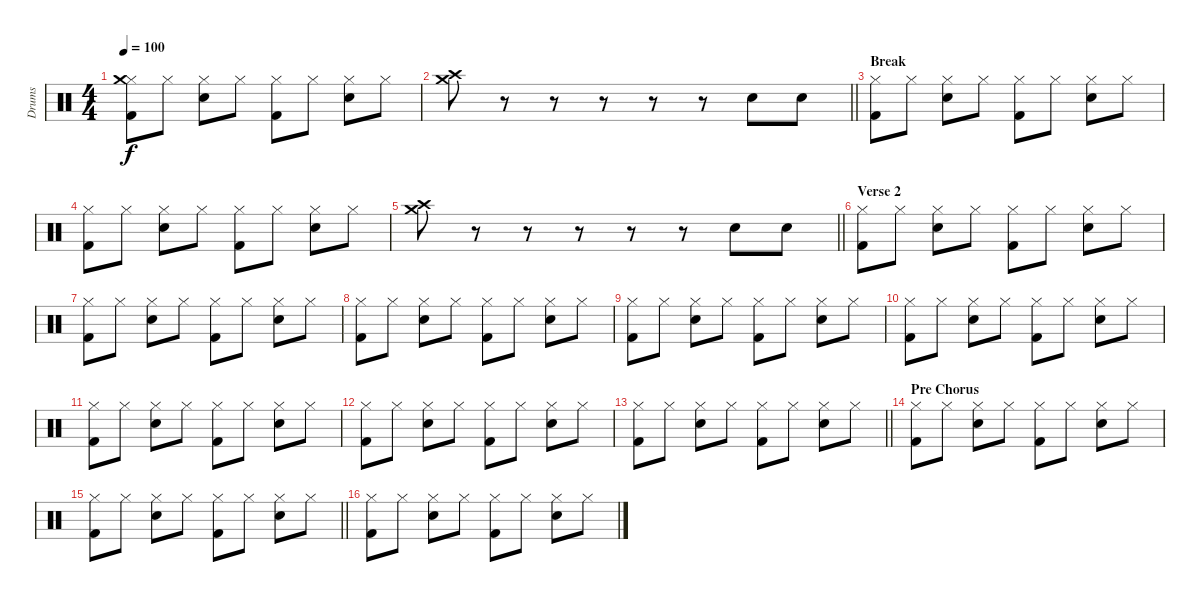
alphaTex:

\track ("Drums" "Drums") {instrument percussion}
\staff {score}
\articulation defaults
\ts (4 4)
\tempo 100
\clef neutral
\ks c
("Hi-Hat (closed)" "Kick (hit) 2" "Crash medium (hit)").8{dy f} "Hi-Hat (closed)".8 ("Hi-Hat (closed)" "Snare (hit) 2").8 "Hi-Hat (closed)".8 ("Hi-Hat (closed)" "Kick (hit) 2").8 "Hi-Hat (closed)".8 ("Hi-Hat (closed)" "Snare (hit) 2").8 "Hi-Hat (closed)".8 |
\barLineRight lightlight
("Crash high (hit)" "Crash medium (hit)").8 r.8 r.8 r.8 r.8 r.8 "Snare (hit) 2".8 "Snare (hit) 2".8 |
\section ("" "Break")
("Hi-Hat (closed)" "Kick (hit) 2").8 "Hi-Hat (closed)".8 ("Hi-Hat (closed)" "Snare (hit) 2").8 "Hi-Hat (closed)".8 ("Hi-Hat (closed)" "Kick (hit) 2").8 "Hi-Hat (closed)".8 ("Hi-Hat (closed)" "Snare (hit) 2").8 "Hi-Hat (closed)".8 |
("Hi-Hat (closed)" "Kick (hit) 2").8 "Hi-Hat (closed)".8 ("Hi-Hat (closed)" "Snare (hit) 2").8 "Hi-Hat (closed)".8 ("Hi-Hat (closed)" "Kick (hit) 2").8 "Hi-Hat (closed)".8 ("Hi-Hat (closed)" "Snare (hit) 2").8 "Hi-Hat (closed)".8 |
\barLineRight lightlight
("Crash high (hit)" "Crash medium (hit)").8 r.8 r.8 r.8 r.8 r.8 "Snare (hit) 2".8 "Snare (hit) 2".8 |
\section ("" "Verse 2")
("Hi-Hat (closed)" "Kick (hit) 2").8 "Hi-Hat (closed)".8 ("Hi-Hat (closed)" "Snare (hit) 2").8 "Hi-Hat (closed)".8 ("Hi-Hat (closed)" "Kick (hit) 2").8 "Hi-Hat (closed)".8 ("Hi-Hat (closed)" "Snare (hit) 2").8 "Hi-Hat (closed)".8 |
("Hi-Hat (closed)" "Kick (hit) 2").8 "Hi-Hat (closed)".8 ("Hi-Hat (closed)" "Snare (hit) 2").8 "Hi-Hat (closed)".8 ("Hi-Hat (closed)" "Kick (hit) 2").8 "Hi-Hat (closed)".8 ("Hi-Hat (closed)" "Snare (hit) 2").8 "Hi-Hat (closed)".8 |
("Hi-Hat (closed)" "Kick (hit) 2").8 "Hi-Hat (closed)".8 ("Hi-Hat (closed)" "Snare (hit) 2").8 "Hi-Hat (closed)".8 ("Hi-Hat (closed)" "Kick (hit) 2").8 "Hi-Hat (closed)".8 ("Hi-Hat (closed)" "Snare (hit) 2").8 "Hi-Hat (closed)".8 |
("Hi-Hat (closed)" "Kick (hit) 2").8 "Hi-Hat (closed)".8 ("Hi-Hat (closed)" "Snare (hit) 2").8 "Hi-Hat (closed)".8 ("Hi-Hat (closed)" "Kick (hit) 2").8 "Hi-Hat (closed)".8 ("Hi-Hat (closed)" "Snare (hit) 2").8 "Hi-Hat (closed)".8 |
("Hi-Hat (closed)" "Kick (hit) 2").8 "Hi-Hat (closed)".8 ("Hi-Hat (closed)" "Snare (hit) 2").8 "Hi-Hat (closed)".8 ("Hi-Hat (closed)" "Kick (hit) 2").8 "Hi-Hat (closed)".8 ("Hi-Hat (closed)" "Snare (hit) 2").8 "Hi-Hat (closed)".8 |
("Hi-Hat (closed)" "Kick (hit) 2").8 "Hi-Hat (closed)".8 ("Hi-Hat (closed)" "Snare (hit) 2").8 "Hi-Hat (closed)".8 ("Hi-Hat (closed)" "Kick (hit) 2").8 "Hi-Hat (closed)".8 ("Hi-Hat (closed)" "Snare (hit) 2").8 "Hi-Hat (closed)".8 |
("Hi-Hat (closed)" "Kick (hit) 2").8 "Hi-Hat (closed)".8 ("Hi-Hat (closed)" "Snare (hit) 2").8 "Hi-Hat (closed)".8 ("Hi-Hat (closed)" "Kick (hit) 2").8 "Hi-Hat (closed)".8 ("Hi-Hat (closed)" "Snare (hit) 2").8 "Hi-Hat (closed)".8 |
\barLineRight lightlight
("Hi-Hat (closed)" "Kick (hit) 2").8 "Hi-Hat (closed)".8 ("Hi-Hat (closed)" "Snare (hit) 2").8 "Hi-Hat (closed)".8 ("Hi-Hat (closed)" "Kick (hit) 2").8 "Hi-Hat (closed)".8 ("Hi-Hat (closed)" "Snare (hit) 2").8 "Hi-Hat (closed)".8 |
\section ("" "Pre Chorus")
("Hi-Hat (closed)" "Kick (hit) 2").8 "Hi-Hat (closed)".8 ("Hi-Hat (closed)" "Snare (hit) 2").8 "Hi-Hat (closed)".8 ("Hi-Hat (closed)" "Kick (hit) 2").8 "Hi-Hat (closed)".8 ("Hi-Hat (closed)" "Snare (hit) 2").8 "Hi-Hat (closed)".8 |
\barLineRight lightlight
("Hi-Hat (closed)" "Kick (hit) 2").8 "Hi-Hat (closed)".8 ("Hi-Hat (closed)" "Snare (hit) 2").8 "Hi-Hat (closed)".8 ("Hi-Hat (closed)" "Kick (hit) 2").8 "Hi-Hat (closed)".8 ("Hi-Hat (closed)" "Snare (hit) 2").8 "Hi-Hat (closed)".8 |
("Hi-Hat (closed)" "Kick (hit) 2").8 "Hi-Hat (closed)".8 ("Hi-Hat (closed)" "Snare (hit) 2").8 "Hi-Hat (closed)".8 ("Hi-Hat (closed)" "Kick (hit) 2").8 "Hi-Hat (closed)".8 ("Hi-Hat (closed)" "Snare (hit) 2").8 "Hi-Hat (closed)".8
